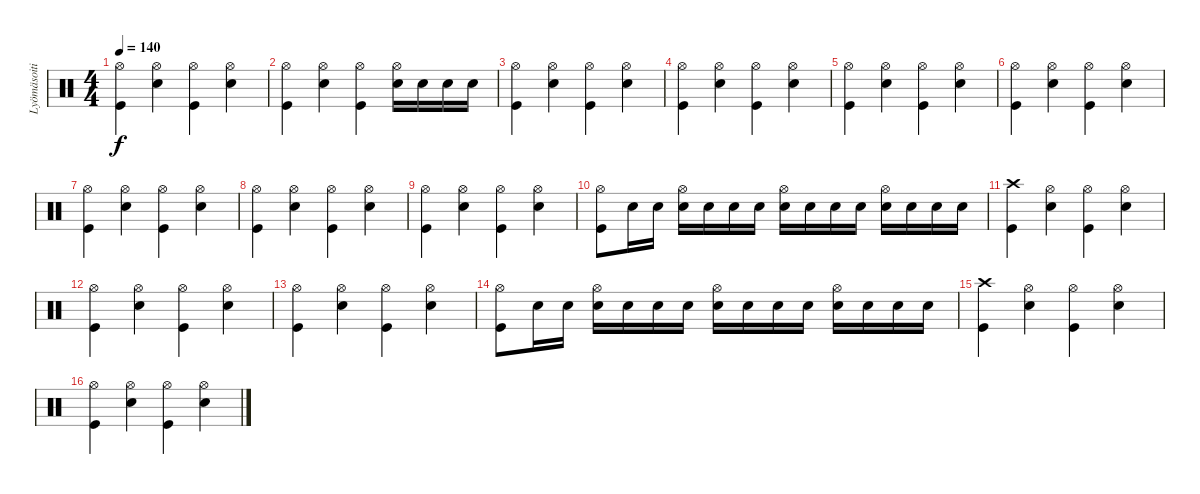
\track ("Lyömäsoitin" "Lyömäsoiti") {instrument percussion}
\staff {score}
\articulation defaults
\ts (4 4)
\tempo 140
\clef neutral
\ks c
("Kick (hit)" "Hi-Hat (open)").4{dy f} ("Electric Snare (hit)" "Hi-Hat (open)").4 ("Kick (hit)" "Hi-Hat (open)").4 ("Electric Snare (hit)" "Hi-Hat (open)").4 |
("Kick (hit)" "Hi-Hat (open)").4 ("Electric Snare (hit)" "Hi-Hat (open)").4 ("Kick (hit)" "Hi-Hat (open)").4 ("Electric Snare (hit)" "Hi-Hat (open)").16 "Electric Snare (hit)".16 "Electric Snare (hit)".16 "Electric Snare (hit)".16 |
("Kick (hit)" "Hi-Hat (open)").4 ("Electric Snare (hit)" "Hi-Hat (open)").4 ("Kick (hit)" "Hi-Hat (open)").4 ("Electric Snare (hit)" "Hi-Hat (open)").4 |
("Kick (hit)" "Hi-Hat (open)").4 ("Electric Snare (hit)" "Hi-Hat (open)").4 ("Kick (hit)" "Hi-Hat (open)").4 ("Electric Snare (hit)" "Hi-Hat (open)").4 |
("Kick (hit)" "Hi-Hat (open)").4 ("Electric Snare (hit)" "Hi-Hat (open)").4 ("Kick (hit)" "Hi-Hat (open)").4 ("Electric Snare (hit)" "Hi-Hat (open)").4 |
("Kick (hit)" "Hi-Hat (open)").4 ("Electric Snare (hit)" "Hi-Hat (open)").4 ("Kick (hit)" "Hi-Hat (open)").4 ("Electric Snare (hit)" "Hi-Hat (open)").4 |
("Kick (hit)" "Hi-Hat (open)").4 ("Electric Snare (hit)" "Hi-Hat (open)").4 ("Kick (hit)" "Hi-Hat (open)").4 ("Electric Snare (hit)" "Hi-Hat (open)").4 |
("Kick (hit)" "Hi-Hat (open)").4 ("Electric Snare (hit)" "Hi-Hat (open)").4 ("Kick (hit)" "Hi-Hat (open)").4 ("Electric Snare (hit)" "Hi-Hat (open)").4 |
("Kick (hit)" "Hi-Hat (open)").4 ("Electric Snare (hit)" "Hi-Hat (open)").4 ("Kick (hit)" "Hi-Hat (open)").4 ("Electric Snare (hit)" "Hi-Hat (open)").4 |
("Kick (hit)" "Hi-Hat (open)").8 "Electric Snare (hit)".16 "Electric Snare (hit)".16 ("Electric Snare (hit)" "Hi-Hat (open)").16 "Electric Snare (hit)".16 "Electric Snare (hit)".16 "Electric Snare (hit)".16 ("Electric Snare (hit)" "Hi-Hat (open)").16 "Electric Snare (hit)".16 "Electric Snare (hit)".16 "Electric Snare (hit)".16 ("Electric Snare (hit)" "Hi-Hat (open)").16 "Electric Snare (hit)".16 "Electric Snare (hit)".16 "Electric Snare (hit)".16 |
("Kick (hit)" "Crash high (hit)").4 ("Electric Snare (hit)" "Hi-Hat (open)").4 ("Kick (hit)" "Hi-Hat (open)").4 ("Electric Snare (hit)" "Hi-Hat (open)").4 |
("Kick (hit)" "Hi-Hat (open)").4 ("Electric Snare (hit)" "Hi-Hat (open)").4 ("Kick (hit)" "Hi-Hat (open)").4 ("Electric Snare (hit)" "Hi-Hat (open)").4 |
("Kick (hit)" "Hi-Hat (open)").4 ("Electric Snare (hit)" "Hi-Hat (open)").4 ("Kick (hit)" "Hi-Hat (open)").4 ("Electric Snare (hit)" "Hi-Hat (open)").4 |
("Kick (hit)" "Hi-Hat (open)").8 "Electric Snare (hit)".16 "Electric Snare (hit)".16 ("Electric Snare (hit)" "Hi-Hat (open)").16 "Electric Snare (hit)".16 "Electric Snare (hit)".16 "Electric Snare (hit)".16 ("Electric Snare (hit)" "Hi-Hat (open)").16 "Electric Snare (hit)".16 "Electric Snare (hit)".16 "Electric Snare (hit)".16 ("Electric Snare (hit)" "Hi-Hat (open)").16 "Electric Snare (hit)".16 "Electric Snare (hit)".16 "Electric Snare (hit)".16 |
("Kick (hit)" "Crash high (hit)").4 ("Electric Snare (hit)" "Hi-Hat (open)").4 ("Kick (hit)" "Hi-Hat (open)").4 ("Electric Snare (hit)" "Hi-Hat (open)").4 |
("Kick (hit)" "Hi-Hat (open)").4 ("Electric Snare (hit)" "Hi-Hat (open)").4 ("Kick (hit)" "Hi-Hat (open)").4 ("Electric Snare (hit)" "Hi-Hat (open)").4
